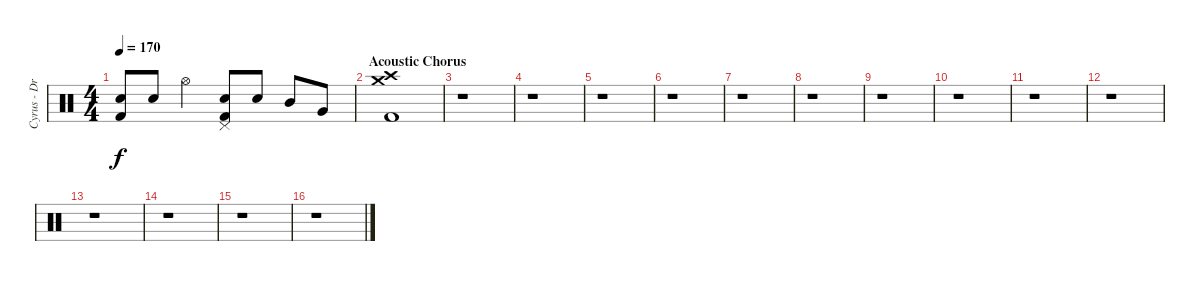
\track ("Cyrus - Drums" "Cyrus - Dr") {instrument percussion}
\staff {score}
\articulation defaults
\ts (4 4)
\tempo 170
\clef neutral
\ks c
("Electric Snare (hit)" "Kick (hit) 2").8{dy f} "Electric Snare (hit)".8 "Hi-Hat (open)".4 ("Pedal Hi-Hat (hit)" "Electric Snare (hit)" "Kick (hit) 2").8 "Electric Snare (hit)".8 "Mid Tom (hit)".8 "Very Low Tom (hit)".8 |
\section ("" "Acoustic Chorus")
("Crash high (hit)" "Crash medium (hit)" "Kick (hit) 2").1 |
r.1 |
r.1 |
r.1 |
r.1 |
r.1 |
r.1 |
r.1 |
r.1 |
r.1 |
r.1 |
r.1 |
r.1 |
r.1 |
r.1
